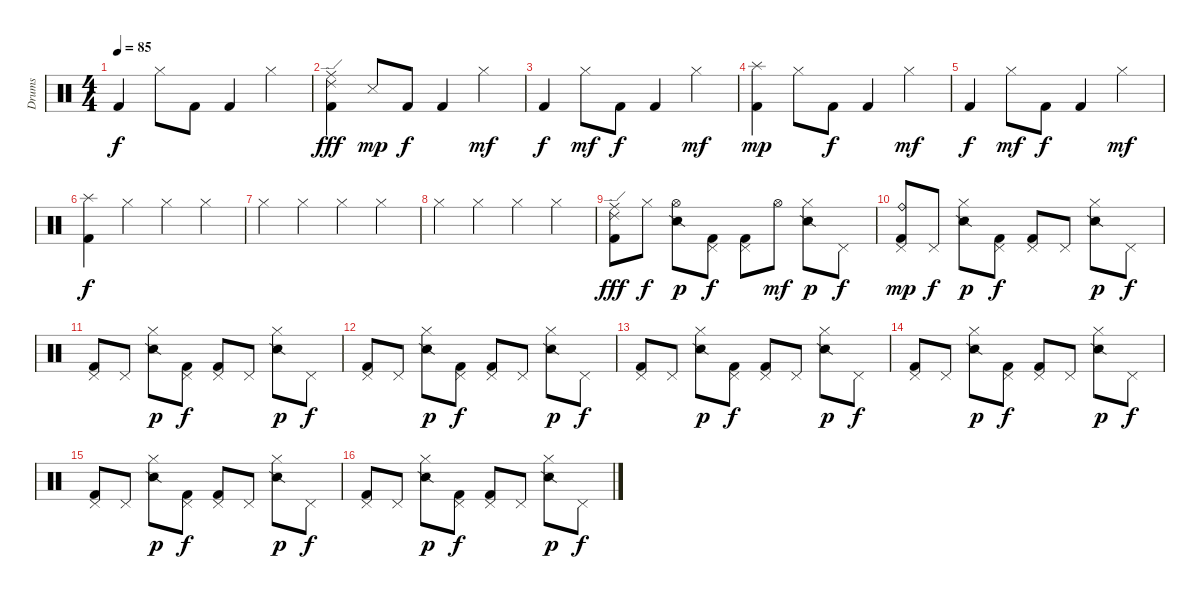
\track ("Drums" "Drums") {instrument percussion}
\staff {score}
\articulation defaults
\ts (4 4)
\tempo 85
\clef neutral
\ks c "Kick (hit) 2".4{dy f} "Hi-Hat (closed)".8 "Kick (hit) 2".8 "Kick (hit) 2".4 "Hi-Hat (closed)".4
|
("Ride (edge) 2" "Ride (middle)" "Kick (hit) 2").4{dy fff} "Snare (side stick) 3".8{dy mp} "Kick (hit) 2".8{dy f} "Kick (hit) 2".4 "Hi-Hat (closed)".4{dy mf} |
"Kick (hit) 2".4{dy f} "Hi-Hat (closed)".8{dy mf} "Kick (hit) 2".8{dy f} "Kick (hit) 2".4 "Hi-Hat (closed)".4{dy mf} |
("Splash (hit)" "Kick (hit) 2").4{dy mp} "Hi-Hat (closed)".8 "Kick (hit) 2".8{dy f} "Kick (hit) 2".4 "Hi-Hat (closed)".4{dy mf} |
"Kick (hit) 2".4{dy f} "Hi-Hat (closed)".8{dy mf} "Kick (hit) 2".8{dy f} "Kick (hit) 2".4 "Hi-Hat (closed)".4{dy mf} |
("Splash (hit)" "Kick (hit) 2").4{dy f} "Hi-Hat (closed)".4 "Hi-Hat (closed)".4 "Hi-Hat (closed)".4 |
"Hi-Hat (closed)".4 "Hi-Hat (closed)".4 "Hi-Hat (closed)".4 "Hi-Hat (closed)".4 |
"Hi-Hat (closed)".4 "Hi-Hat (closed)".4 "Hi-Hat (closed)".4 "Hi-Hat (closed)".4 |
("Ride (edge) 2" "Ride (middle)" "Kick (hit) 2").8{dy fff} "Hi-Hat (closed)".8{dy f} ("Hi-Hat (open)" "Snare (side stick) 2").8{dy p} ("Pedal Hi-Hat (hit)" "Kick (hit) 2").8{dy f} ("Pedal Hi-Hat (hit)" "Kick (hit) 2").8 "Hi-Hat (open)".8{dy mf} ("Hi-Hat (closed)" "Snare (side stick) 2").8{dy p} "Pedal Hi-Hat (hit)".8{dy f} |
("Ride (bell)" "Pedal Hi-Hat (hit)" "Kick (hit) 2").8{dy mp} "Pedal Hi-Hat (hit)".8{dy f} ("Hi-Hat (closed)" "Snare (side stick) 2").8{dy p} ("Pedal Hi-Hat (hit)" "Kick (hit) 2").8{dy f} ("Pedal Hi-Hat (hit)" "Kick (hit) 2").8 "Pedal Hi-Hat (hit)".8 ("Hi-Hat (closed)" "Snare (side stick) 2").8{dy p} "Pedal Hi-Hat (hit)".8{dy f} |
("Pedal Hi-Hat (hit)" "Kick (hit) 2").8 "Pedal Hi-Hat (hit)".8 ("Hi-Hat (closed)" "Snare (side stick) 2").8{dy p} ("Pedal Hi-Hat (hit)" "Kick (hit) 2").8{dy f} ("Pedal Hi-Hat (hit)" "Kick (hit) 2").8 "Pedal Hi-Hat (hit)".8 ("Hi-Hat (closed)" "Snare (side stick) 2").8{dy p} "Pedal Hi-Hat (hit)".8{dy f} |
("Pedal Hi-Hat (hit)" "Kick (hit) 2").8 "Pedal Hi-Hat (hit)".8 ("Hi-Hat (closed)" "Snare (side stick) 2").8{dy p} ("Pedal Hi-Hat (hit)" "Kick (hit) 2").8{dy f} ("Pedal Hi-Hat (hit)" "Kick (hit) 2").8 "Pedal Hi-Hat (hit)".8 ("Hi-Hat (closed)" "Snare (side stick) 2").8{dy p} "Pedal Hi-Hat (hit)".8{dy f} |
("Pedal Hi-Hat (hit)" "Kick (hit) 2").8 "Pedal Hi-Hat (hit)".8 ("Hi-Hat (closed)" "Snare (side stick) 2").8{dy p} ("Pedal Hi-Hat (hit)" "Kick (hit) 2").8{dy f} ("Pedal Hi-Hat (hit)" "Kick (hit) 2").8 "Pedal Hi-Hat (hit)".8 ("Hi-Hat (closed)" "Snare (side stick) 2").8{dy p} "Pedal Hi-Hat (hit)".8{dy f} |
("Pedal Hi-Hat (hit)" "Kick (hit) 2").8 "Pedal Hi-Hat (hit)".8 ("Hi-Hat (closed)" "Snare (side stick) 2").8{dy p} ("Pedal Hi-Hat (hit)" "Kick (hit) 2").8{dy f} ("Pedal Hi-Hat (hit)" "Kick (hit) 2").8 "Pedal Hi-Hat (hit)".8 ("Hi-Hat (closed)" "Snare (side stick) 2").8{dy p} "Pedal Hi-Hat (hit)".8{dy f} |
("Pedal Hi-Hat (hit)" "Kick (hit) 2").8 "Pedal Hi-Hat (hit)".8 ("Hi-Hat (closed)" "Snare (side stick) 2").8{dy p} ("Pedal Hi-Hat (hit)" "Kick (hit) 2").8{dy f} ("Pedal Hi-Hat (hit)" "Kick (hit) 2").8 "Pedal Hi-Hat (hit)".8 ("Hi-Hat (closed)" "Snare (side stick) 2").8{dy p} "Pedal Hi-Hat (hit)".8{dy f} |
("Pedal Hi-Hat (hit)" "Kick (hit) 2").8 "Pedal Hi-Hat (hit)".8 ("Hi-Hat (closed)" "Snare (side stick) 2").8{dy p} ("Pedal Hi-Hat (hit)" "Kick (hit) 2").8{dy f} ("Pedal Hi-Hat (hit)" "Kick (hit) 2").8 "Pedal Hi-Hat (hit)".8 ("Hi-Hat (closed)" "Snare (side stick) 2").8{dy p} "Pedal Hi-Hat (hit)".8{dy f}
